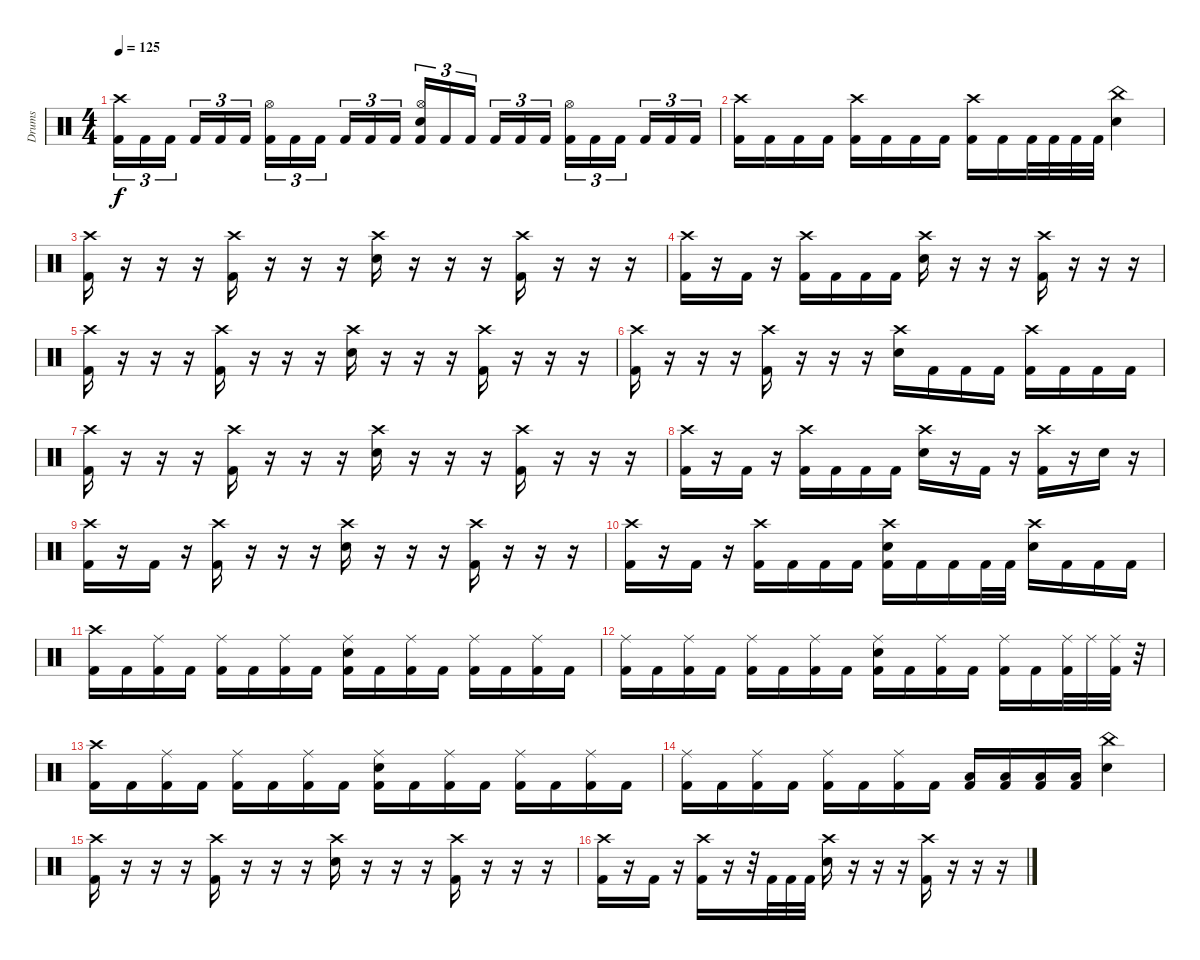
\track ("Drums" "Drums") {instrument percussion}
\staff {score}
\articulation defaults
\ts (4 4)
\tempo 125
\clef neutral
\ks c
("Crash high (hit)" "Kick (hit) 2").16{tu (3 2) dy f} "Kick (hit) 2".16{tu (3 2)} "Kick (hit) 2".16{tu (3 2) beam splitsecondary} "Kick (hit) 2".16{tu (3 2)} "Kick (hit) 2".16{tu (3 2)} "Kick (hit) 2".16{tu (3 2)} ("Hi-Hat (open)" "Kick (hit) 2").16{tu (3 2)} "Kick (hit) 2".16{tu (3 2)} "Kick (hit) 2".16{tu (3 2) beam splitsecondary} "Kick (hit) 2".16{tu (3 2)} "Kick (hit) 2".16{tu (3 2)} "Kick (hit) 2".16{tu (3 2)} ("Hi-Hat (open)" "Electric Snare (hit)" "Kick (hit) 2").16{tu (3 2)} "Kick (hit) 2".16{tu (3 2)} "Kick (hit) 2".16{tu (3 2) beam splitsecondary} "Kick (hit) 2".16{tu (3 2)} "Kick (hit) 2".16{tu (3 2)} "Kick (hit) 2".16{tu (3 2)} ("Hi-Hat (open)" "Kick (hit) 2").16{tu (3 2)} "Kick (hit) 2".16{tu (3 2)} "Kick (hit) 2".16{tu (3 2) beam splitsecondary} "Kick (hit) 2".16{tu (3 2)} "Kick (hit) 2".16{tu (3 2)} "Kick (hit) 2".16{tu (3 2)} |
("Crash high (hit)" "Kick (hit) 2").16 "Kick (hit) 2".16 "Kick (hit) 2".16 "Kick (hit) 2".16 ("Crash high (hit)" "Kick (hit) 2").16 "Kick (hit) 2".16 "Kick (hit) 2".16 "Kick (hit) 2".16 ("Crash high (hit)" "Kick (hit) 2").16 "Kick (hit) 2".16 "Kick (hit) 2".32 "Kick (hit) 2".32 "Kick (hit) 2".32 "Kick (hit) 2".32 ("China (hit)" "Electric Snare (hit)").4 |
("Crash high (hit)" "Kick (hit) 2").16 r.16 r.16 r.16 ("Crash high (hit)" "Kick (hit) 2").16 r.16 r.16 r.16 ("Crash high (hit)" "Electric Snare (hit)").16 r.16 r.16 r.16 ("Crash high (hit)" "Kick (hit) 2").16 r.16 r.16 r.16 |
("Crash high (hit)" "Kick (hit) 2").16 r.16 "Kick (hit) 2".16 r.16 ("Crash high (hit)" "Kick (hit) 2").16 "Kick (hit) 2".16 "Kick (hit) 2".16 "Kick (hit) 2".16 ("Crash high (hit)" "Electric Snare (hit)").16 r.16 r.16 r.16 ("Crash high (hit)" "Kick (hit) 2").16 r.16 r.16 r.16 |
("Crash high (hit)" "Kick (hit) 2").16 r.16 r.16 r.16 ("Crash high (hit)" "Kick (hit) 2").16 r.16 r.16 r.16 ("Crash high (hit)" "Electric Snare (hit)").16 r.16 r.16 r.16 ("Crash high (hit)" "Kick (hit) 2").16 r.16 r.16 r.16 |
("Crash high (hit)" "Kick (hit) 2").16 r.16 r.16 r.16 ("Crash high (hit)" "Kick (hit) 2").16 r.16 r.16 r.16 ("Crash high (hit)" "Electric Snare (hit)").16 "Kick (hit) 2".16 "Kick (hit) 2".16 "Kick (hit) 2".16 ("Crash high (hit)" "Kick (hit) 2").16 "Kick (hit) 2".16 "Kick (hit) 2".16 "Kick (hit) 2".16 |
("Crash high (hit)" "Kick (hit) 2").16 r.16 r.16 r.16 ("Crash high (hit)" "Kick (hit) 2").16 r.16 r.16 r.16 ("Crash high (hit)" "Electric Snare (hit)").16 r.16 r.16 r.16 ("Crash high (hit)" "Kick (hit) 2").16 r.16 r.16 r.16 |
("Crash high (hit)" "Kick (hit) 2").16 r.16 "Kick (hit) 2".16 r.16 ("Crash high (hit)" "Kick (hit) 2").16 "Kick (hit) 2".16 "Kick (hit) 2".16 "Kick (hit) 2".16 ("Crash high (hit)" "Electric Snare (hit)").16 r.16 "Kick (hit) 2".16 r.16 ("Crash high (hit)" "Kick (hit) 2").16 r.16 "Electric Snare (hit)".16 r.16 |
("Crash high (hit)" "Kick (hit) 2").16 r.16 "Kick (hit) 2".16 r.16 ("Crash high (hit)" "Kick (hit) 2").16 r.16 r.16 r.16 ("Crash high (hit)" "Electric Snare (hit)").16 r.16 r.16 r.16 ("Crash high (hit)" "Kick (hit) 2").16 r.16 r.16 r.16 |
("Crash high (hit)" "Kick (hit) 2").16 r.16 "Kick (hit) 2".16 r.16 ("Crash high (hit)" "Kick (hit) 2").16 "Kick (hit) 2".16 "Kick (hit) 2".16 "Kick (hit) 2".16 ("Crash high (hit)" "Electric Snare (hit)" "Kick (hit) 2").16 "Kick (hit) 2".16 "Kick (hit) 2".16 "Kick (hit) 2".32 "Kick (hit) 2".32 ("Crash high (hit)" "Electric Snare (hit)").16 "Kick (hit) 2".16 "Kick (hit) 2".16 "Kick (hit) 2".16 |
("Crash high (hit)" "Kick (hit) 2").16 "Kick (hit) 2".16 ("Ride (middle)" "Kick (hit) 2").16 "Kick (hit) 2".16 ("Ride (middle)" "Kick (hit) 2").16 "Kick (hit) 2".16 ("Ride (middle)" "Kick (hit) 2").16 "Kick (hit) 2".16 ("Ride (middle)" "Electric Snare (hit)" "Kick (hit) 2").16 "Kick (hit) 2".16 ("Ride (middle)" "Kick (hit) 2").16 "Kick (hit) 2".16 ("Ride (middle)" "Kick (hit) 2").16 "Kick (hit) 2".16 ("Ride (middle)" "Kick (hit) 2").16 "Kick (hit) 2".16 |
("Ride (middle)" "Kick (hit) 2").16 "Kick (hit) 2".16 ("Ride (middle)" "Kick (hit) 2").16 "Kick (hit) 2".16 ("Ride (middle)" "Kick (hit) 2").16 "Kick (hit) 2".16 ("Ride (middle)" "Kick (hit) 2").16 "Kick (hit) 2".16 ("Ride (middle)" "Electric Snare (hit)" "Kick (hit) 2").16 "Kick (hit) 2".16 ("Ride (middle)" "Kick (hit) 2").16 "Kick (hit) 2".16 ("Ride (middle)" "Kick (hit) 2").16 "Kick (hit) 2".16 ("Ride (middle)" "Kick (hit) 2").32 "Ride (middle)".32 ("Ride (middle)" "Kick (hit) 2").32 r.32 |
("Crash high (hit)" "Kick (hit) 2").16 "Kick (hit) 2".16 ("Ride (middle)" "Kick (hit) 2").16 "Kick (hit) 2".16 ("Ride (middle)" "Kick (hit) 2").16 "Kick (hit) 2".16 ("Ride (middle)" "Kick (hit) 2").16 "Kick (hit) 2".16 ("Ride (middle)" "Electric Snare (hit)" "Kick (hit) 2").16 "Kick (hit) 2".16 ("Ride (middle)" "Kick (hit) 2").16 "Kick (hit) 2".16 ("Ride (middle)" "Kick (hit) 2").16 "Kick (hit) 2".16 ("Ride (middle)" "Kick (hit) 2").16 "Kick (hit) 2".16 |
("Ride (middle)" "Kick (hit) 2").16 "Kick (hit) 2".16 ("Ride (middle)" "Kick (hit) 2").16 "Kick (hit) 2".16 ("Ride (middle)" "Kick (hit) 2").16 "Kick (hit) 2".16 ("Ride (middle)" "Kick (hit) 2").16 "Kick (hit) 2".16 ("Low Tom (hit)" "Kick (hit) 2").16 ("Low Tom (hit)" "Kick (hit) 2").16 ("Low Tom (hit)" "Kick (hit) 2").16 ("Low Tom (hit)" "Kick (hit) 2").16 ("China (hit)" "Electric Snare (hit)").4 |
("Crash high (hit)" "Kick (hit) 2").16 r.16 r.16 r.16 ("Crash high (hit)" "Kick (hit) 2").16 r.16 r.16 r.16 ("Crash high (hit)" "Electric Snare (hit)").16 r.16 r.16 r.16 ("Crash high (hit)" "Kick (hit) 2").16 r.16 r.16 r.16 |
("Crash high (hit)" "Kick (hit) 2").16 r.16 "Kick (hit) 2".16 r.16 ("Crash high (hit)" "Kick (hit) 2").16 r.16 r.32 "Kick (hit) 2".32 "Kick (hit) 2".32 "Kick (hit) 2".32 ("Crash high (hit)" "Electric Snare (hit)").16 r.16 r.16 r.16 ("Crash high (hit)" "Kick (hit) 2").16 r.16 r.16 r.16
